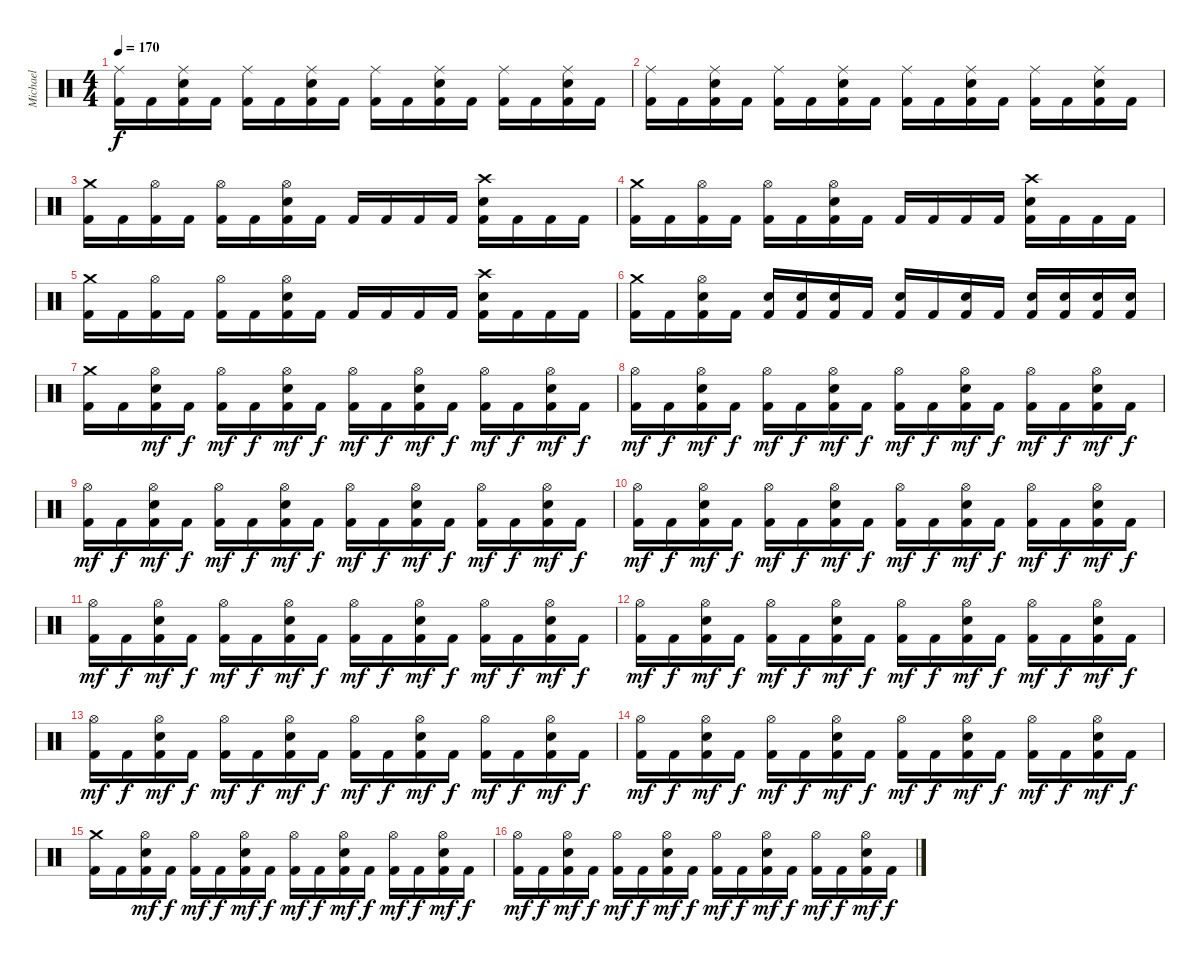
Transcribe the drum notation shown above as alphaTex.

\track ("Michael" "Michael") {instrument percussion}
\staff {score}
\articulation defaults
\ts (4 4)
\tempo 170
\clef neutral
\ks c
("Ride (middle)" "Kick (hit) 2").16{dy f} "Kick (hit) 2".16 ("Ride (middle)" "Electric Snare (hit)" "Kick (hit) 2").16 "Kick (hit) 2".16 ("Ride (middle)" "Kick (hit) 2").16 "Kick (hit) 2".16 ("Ride (middle)" "Electric Snare (hit)" "Kick (hit) 2").16 "Kick (hit) 2".16 ("Ride (middle)" "Kick (hit) 2").16 "Kick (hit) 2".16 ("Ride (middle)" "Electric Snare (hit)" "Kick (hit) 2").16 "Kick (hit) 2".16 ("Ride (middle)" "Kick (hit) 2").16 "Kick (hit) 2".16 ("Ride (middle)" "Electric Snare (hit)" "Kick (hit) 2").16 "Kick (hit) 2".16 |
("Ride (middle)" "Kick (hit) 2").16 "Kick (hit) 2".16 ("Ride (middle)" "Electric Snare (hit)" "Kick (hit) 2").16 "Kick (hit) 2".16 ("Ride (middle)" "Kick (hit) 2").16 "Kick (hit) 2".16 ("Ride (middle)" "Electric Snare (hit)" "Kick (hit) 2").16 "Kick (hit) 2".16 ("Ride (middle)" "Kick (hit) 2").16 "Kick (hit) 2".16 ("Ride (middle)" "Electric Snare (hit)" "Kick (hit) 2").16 "Kick (hit) 2".16 ("Ride (middle)" "Kick (hit) 2").16 "Kick (hit) 2".16 ("Ride (middle)" "Electric Snare (hit)" "Kick (hit) 2").16 "Kick (hit) 2".16 |
("Crash medium (hit)" "Kick (hit) 2").16 "Kick (hit) 2".16 ("Hi-Hat (open)" "Kick (hit) 2").16 "Kick (hit) 2".16 ("Hi-Hat (open)" "Kick (hit) 2").16 "Kick (hit) 2".16 ("Hi-Hat (open)" "Electric Snare (hit)" "Kick (hit) 2").16 "Kick (hit) 2".16 "Kick (hit) 2".16 "Kick (hit) 2".16 "Kick (hit) 2".16 "Kick (hit) 2".16 ("Crash high (hit)" "Electric Snare (hit)" "Kick (hit) 2").16 "Kick (hit) 2".16 "Kick (hit) 2".16 "Kick (hit) 2".16 |
("Crash medium (hit)" "Kick (hit) 2").16 "Kick (hit) 2".16 ("Hi-Hat (open)" "Kick (hit) 2").16 "Kick (hit) 2".16 ("Hi-Hat (open)" "Kick (hit) 2").16 "Kick (hit) 2".16 ("Hi-Hat (open)" "Electric Snare (hit)" "Kick (hit) 2").16 "Kick (hit) 2".16 "Kick (hit) 2".16 "Kick (hit) 2".16 "Kick (hit) 2".16 "Kick (hit) 2".16 ("Crash high (hit)" "Electric Snare (hit)" "Kick (hit) 2").16 "Kick (hit) 2".16 "Kick (hit) 2".16 "Kick (hit) 2".16 |
("Crash medium (hit)" "Kick (hit) 2").16 "Kick (hit) 2".16 ("Hi-Hat (open)" "Kick (hit) 2").16 "Kick (hit) 2".16 ("Hi-Hat (open)" "Kick (hit) 2").16 "Kick (hit) 2".16 ("Hi-Hat (open)" "Electric Snare (hit)" "Kick (hit) 2").16 "Kick (hit) 2".16 "Kick (hit) 2".16 "Kick (hit) 2".16 "Kick (hit) 2".16 "Kick (hit) 2".16 ("Crash high (hit)" "Electric Snare (hit)" "Kick (hit) 2").16 "Kick (hit) 2".16 "Kick (hit) 2".16 "Kick (hit) 2".16 |
("Crash medium (hit)" "Kick (hit) 2").16 "Kick (hit) 2".16 ("Hi-Hat (open)" "Electric Snare (hit)" "Kick (hit) 2").16 "Kick (hit) 2".16 ("Electric Snare (hit)" "Kick (hit) 2").16 ("Electric Snare (hit)" "Kick (hit) 2").16 ("Electric Snare (hit)" "Kick (hit) 2").16 "Kick (hit) 2".16 ("Electric Snare (hit)" "Kick (hit) 2").16 "Kick (hit) 2".16 ("Electric Snare (hit)" "Kick (hit) 2").16 "Kick (hit) 2".16 ("Electric Snare (hit)" "Kick (hit) 2").16 ("Electric Snare (hit)" "Kick (hit) 2").16 ("Electric Snare (hit)" "Kick (hit) 2").16 ("Electric Snare (hit)" "Kick (hit) 2").16 |
("Crash medium (hit)" "Kick (hit) 2").16 "Kick (hit) 2".16 ("Hi-Hat (open)" "Electric Snare (hit)" "Kick (hit) 2").16{dy mf} "Kick (hit) 2".16{dy f} ("Hi-Hat (open)" "Kick (hit) 2").16{dy mf} "Kick (hit) 2".16{dy f} ("Hi-Hat (open)" "Electric Snare (hit)" "Kick (hit) 2").16{dy mf} "Kick (hit) 2".16{dy f} ("Hi-Hat (open)" "Kick (hit) 2").16{dy mf} "Kick (hit) 2".16{dy f} ("Hi-Hat (open)" "Electric Snare (hit)" "Kick (hit) 2").16{dy mf} "Kick (hit) 2".16{dy f} ("Hi-Hat (open)" "Kick (hit) 2").16{dy mf} "Kick (hit) 2".16{dy f} ("Hi-Hat (open)" "Electric Snare (hit)" "Kick (hit) 2").16{dy mf} "Kick (hit) 2".16{dy f} |
("Hi-Hat (open)" "Kick (hit) 2").16{dy mf} "Kick (hit) 2".16{dy f} ("Hi-Hat (open)" "Electric Snare (hit)" "Kick (hit) 2").16{dy mf} "Kick (hit) 2".16{dy f} ("Hi-Hat (open)" "Kick (hit) 2").16{dy mf} "Kick (hit) 2".16{dy f} ("Hi-Hat (open)" "Electric Snare (hit)" "Kick (hit) 2").16{dy mf} "Kick (hit) 2".16{dy f} ("Hi-Hat (open)" "Kick (hit) 2").16{dy mf} "Kick (hit) 2".16{dy f} ("Hi-Hat (open)" "Electric Snare (hit)" "Kick (hit) 2").16{dy mf} "Kick (hit) 2".16{dy f} ("Hi-Hat (open)" "Kick (hit) 2").16{dy mf} "Kick (hit) 2".16{dy f} ("Hi-Hat (open)" "Electric Snare (hit)" "Kick (hit) 2").16{dy mf} "Kick (hit) 2".16{dy f} |
("Hi-Hat (open)" "Kick (hit) 2").16{dy mf} "Kick (hit) 2".16{dy f} ("Hi-Hat (open)" "Electric Snare (hit)" "Kick (hit) 2").16{dy mf} "Kick (hit) 2".16{dy f} ("Hi-Hat (open)" "Kick (hit) 2").16{dy mf} "Kick (hit) 2".16{dy f} ("Hi-Hat (open)" "Electric Snare (hit)" "Kick (hit) 2").16{dy mf} "Kick (hit) 2".16{dy f} ("Hi-Hat (open)" "Kick (hit) 2").16{dy mf} "Kick (hit) 2".16{dy f} ("Hi-Hat (open)" "Electric Snare (hit)" "Kick (hit) 2").16{dy mf} "Kick (hit) 2".16{dy f} ("Hi-Hat (open)" "Kick (hit) 2").16{dy mf} "Kick (hit) 2".16{dy f} ("Hi-Hat (open)" "Electric Snare (hit)" "Kick (hit) 2").16{dy mf} "Kick (hit) 2".16{dy f} |
("Hi-Hat (open)" "Kick (hit) 2").16{dy mf} "Kick (hit) 2".16{dy f} ("Hi-Hat (open)" "Electric Snare (hit)" "Kick (hit) 2").16{dy mf} "Kick (hit) 2".16{dy f} ("Hi-Hat (open)" "Kick (hit) 2").16{dy mf} "Kick (hit) 2".16{dy f} ("Hi-Hat (open)" "Electric Snare (hit)" "Kick (hit) 2").16{dy mf} "Kick (hit) 2".16{dy f} ("Hi-Hat (open)" "Kick (hit) 2").16{dy mf} "Kick (hit) 2".16{dy f} ("Hi-Hat (open)" "Electric Snare (hit)" "Kick (hit) 2").16{dy mf} "Kick (hit) 2".16{dy f} ("Hi-Hat (open)" "Kick (hit) 2").16{dy mf} "Kick (hit) 2".16{dy f} ("Hi-Hat (open)" "Electric Snare (hit)" "Kick (hit) 2").16{dy mf} "Kick (hit) 2".16{dy f} |
("Hi-Hat (open)" "Kick (hit) 2").16{dy mf} "Kick (hit) 2".16{dy f} ("Hi-Hat (open)" "Electric Snare (hit)" "Kick (hit) 2").16{dy mf} "Kick (hit) 2".16{dy f} ("Hi-Hat (open)" "Kick (hit) 2").16{dy mf} "Kick (hit) 2".16{dy f} ("Hi-Hat (open)" "Electric Snare (hit)" "Kick (hit) 2").16{dy mf} "Kick (hit) 2".16{dy f} ("Hi-Hat (open)" "Kick (hit) 2").16{dy mf} "Kick (hit) 2".16{dy f} ("Hi-Hat (open)" "Electric Snare (hit)" "Kick (hit) 2").16{dy mf} "Kick (hit) 2".16{dy f} ("Hi-Hat (open)" "Kick (hit) 2").16{dy mf} "Kick (hit) 2".16{dy f} ("Hi-Hat (open)" "Electric Snare (hit)" "Kick (hit) 2").16{dy mf} "Kick (hit) 2".16{dy f} |
("Hi-Hat (open)" "Kick (hit) 2").16{dy mf} "Kick (hit) 2".16{dy f} ("Hi-Hat (open)" "Electric Snare (hit)" "Kick (hit) 2").16{dy mf} "Kick (hit) 2".16{dy f} ("Hi-Hat (open)" "Kick (hit) 2").16{dy mf} "Kick (hit) 2".16{dy f} ("Hi-Hat (open)" "Electric Snare (hit)" "Kick (hit) 2").16{dy mf} "Kick (hit) 2".16{dy f} ("Hi-Hat (open)" "Kick (hit) 2").16{dy mf} "Kick (hit) 2".16{dy f} ("Hi-Hat (open)" "Electric Snare (hit)" "Kick (hit) 2").16{dy mf} "Kick (hit) 2".16{dy f} ("Hi-Hat (open)" "Kick (hit) 2").16{dy mf} "Kick (hit) 2".16{dy f} ("Hi-Hat (open)" "Electric Snare (hit)" "Kick (hit) 2").16{dy mf} "Kick (hit) 2".16{dy f} |
("Hi-Hat (open)" "Kick (hit) 2").16{dy mf} "Kick (hit) 2".16{dy f} ("Hi-Hat (open)" "Electric Snare (hit)" "Kick (hit) 2").16{dy mf} "Kick (hit) 2".16{dy f} ("Hi-Hat (open)" "Kick (hit) 2").16{dy mf} "Kick (hit) 2".16{dy f} ("Hi-Hat (open)" "Electric Snare (hit)" "Kick (hit) 2").16{dy mf} "Kick (hit) 2".16{dy f} ("Hi-Hat (open)" "Kick (hit) 2").16{dy mf} "Kick (hit) 2".16{dy f} ("Hi-Hat (open)" "Electric Snare (hit)" "Kick (hit) 2").16{dy mf} "Kick (hit) 2".16{dy f} ("Hi-Hat (open)" "Kick (hit) 2").16{dy mf} "Kick (hit) 2".16{dy f} ("Hi-Hat (open)" "Electric Snare (hit)" "Kick (hit) 2").16{dy mf} "Kick (hit) 2".16{dy f} |
("Hi-Hat (open)" "Kick (hit) 2").16{dy mf} "Kick (hit) 2".16{dy f} ("Hi-Hat (open)" "Electric Snare (hit)" "Kick (hit) 2").16{dy mf} "Kick (hit) 2".16{dy f} ("Hi-Hat (open)" "Kick (hit) 2").16{dy mf} "Kick (hit) 2".16{dy f} ("Hi-Hat (open)" "Electric Snare (hit)" "Kick (hit) 2").16{dy mf} "Kick (hit) 2".16{dy f} ("Hi-Hat (open)" "Kick (hit) 2").16{dy mf} "Kick (hit) 2".16{dy f} ("Hi-Hat (open)" "Electric Snare (hit)" "Kick (hit) 2").16{dy mf} "Kick (hit) 2".16{dy f} ("Hi-Hat (open)" "Kick (hit) 2").16{dy mf} "Kick (hit) 2".16{dy f} ("Hi-Hat (open)" "Electric Snare (hit)" "Kick (hit) 2").16{dy mf} "Kick (hit) 2".16{dy f} |
("Crash medium (hit)" "Kick (hit) 2").16 "Kick (hit) 2".16 ("Hi-Hat (open)" "Electric Snare (hit)" "Kick (hit) 2").16{dy mf} "Kick (hit) 2".16{dy f} ("Hi-Hat (open)" "Kick (hit) 2").16{dy mf} "Kick (hit) 2".16{dy f} ("Hi-Hat (open)" "Electric Snare (hit)" "Kick (hit) 2").16{dy mf} "Kick (hit) 2".16{dy f} ("Hi-Hat (open)" "Kick (hit) 2").16{dy mf} "Kick (hit) 2".16{dy f} ("Hi-Hat (open)" "Electric Snare (hit)" "Kick (hit) 2").16{dy mf} "Kick (hit) 2".16{dy f} ("Hi-Hat (open)" "Kick (hit) 2").16{dy mf} "Kick (hit) 2".16{dy f} ("Hi-Hat (open)" "Electric Snare (hit)" "Kick (hit) 2").16{dy mf} "Kick (hit) 2".16{dy f} |
("Hi-Hat (open)" "Kick (hit) 2").16{dy mf} "Kick (hit) 2".16{dy f} ("Hi-Hat (open)" "Electric Snare (hit)" "Kick (hit) 2").16{dy mf} "Kick (hit) 2".16{dy f} ("Hi-Hat (open)" "Kick (hit) 2").16{dy mf} "Kick (hit) 2".16{dy f} ("Hi-Hat (open)" "Electric Snare (hit)" "Kick (hit) 2").16{dy mf} "Kick (hit) 2".16{dy f} ("Hi-Hat (open)" "Kick (hit) 2").16{dy mf} "Kick (hit) 2".16{dy f} ("Hi-Hat (open)" "Electric Snare (hit)" "Kick (hit) 2").16{dy mf} "Kick (hit) 2".16{dy f} ("Hi-Hat (open)" "Kick (hit) 2").16{dy mf} "Kick (hit) 2".16{dy f} ("Hi-Hat (open)" "Electric Snare (hit)" "Kick (hit) 2").16{dy mf} "Kick (hit) 2".16{dy f}
